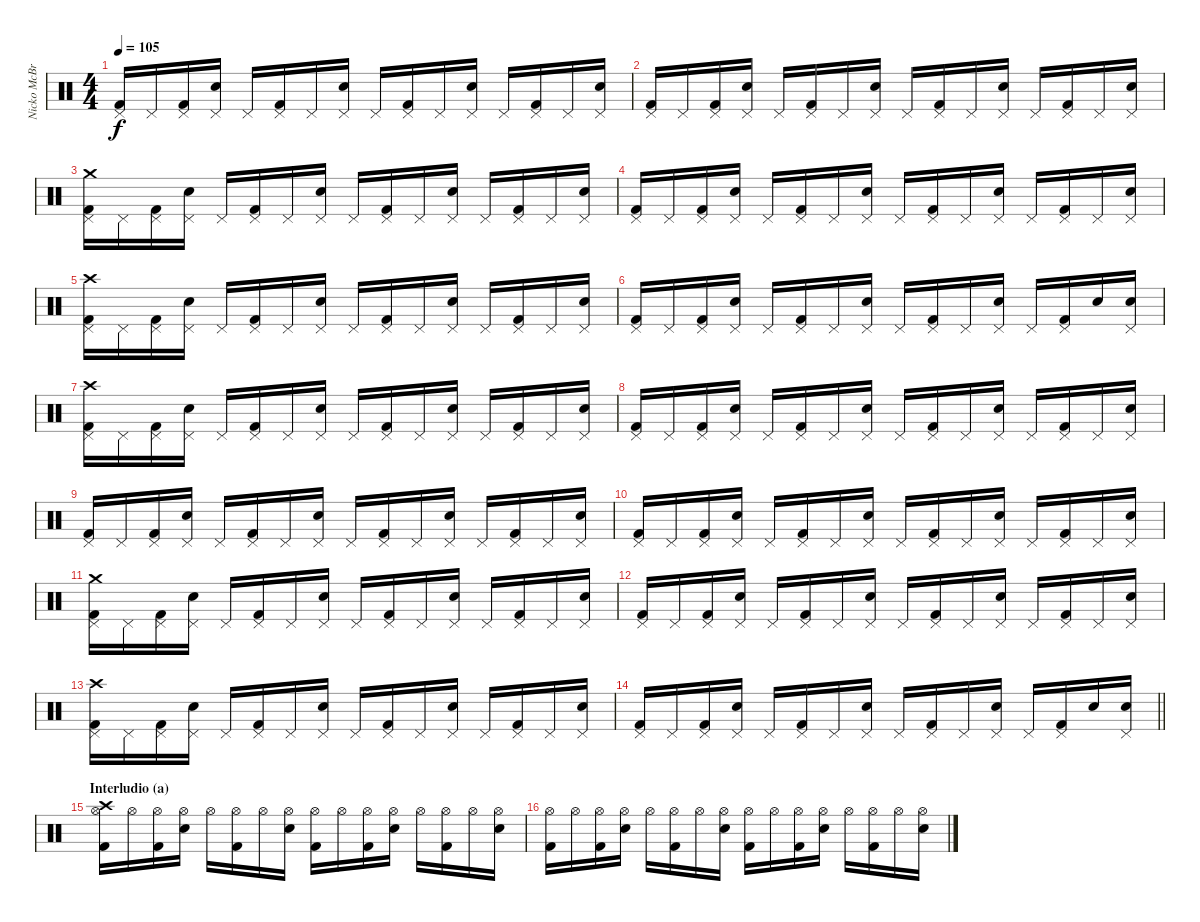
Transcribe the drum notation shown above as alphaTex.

\track ("Nicko McBrain" "Nicko McBr") {instrument percussion}
\staff {score}
\articulation defaults
\ts (4 4)
\tempo 105
\clef neutral
\ks c
("Kick (hit) 2" "Pedal Hi-Hat (hit)").16{dy f} "Pedal Hi-Hat (hit)".16 ("Kick (hit) 2" "Pedal Hi-Hat (hit)").16 ("Snare (hit) 2" "Pedal Hi-Hat (hit)").16 "Pedal Hi-Hat (hit)".16 ("Kick (hit) 2" "Pedal Hi-Hat (hit)").16 "Pedal Hi-Hat (hit)".16 ("Snare (hit) 2" "Pedal Hi-Hat (hit)").16 "Pedal Hi-Hat (hit)".16 ("Kick (hit) 2" "Pedal Hi-Hat (hit)").16 "Pedal Hi-Hat (hit)".16 ("Snare (hit) 2" "Pedal Hi-Hat (hit)").16 "Pedal Hi-Hat (hit)".16 ("Kick (hit) 2" "Pedal Hi-Hat (hit)").16 "Pedal Hi-Hat (hit)".16 ("Snare (hit) 2" "Pedal Hi-Hat (hit)").16 |
("Kick (hit) 2" "Pedal Hi-Hat (hit)").16 "Pedal Hi-Hat (hit)".16 ("Kick (hit) 2" "Pedal Hi-Hat (hit)").16 ("Snare (hit) 2" "Pedal Hi-Hat (hit)").16 "Pedal Hi-Hat (hit)".16 ("Kick (hit) 2" "Pedal Hi-Hat (hit)").16 "Pedal Hi-Hat (hit)".16 ("Snare (hit) 2" "Pedal Hi-Hat (hit)").16 "Pedal Hi-Hat (hit)".16 ("Kick (hit) 2" "Pedal Hi-Hat (hit)").16 "Pedal Hi-Hat (hit)".16 ("Snare (hit) 2" "Pedal Hi-Hat (hit)").16 "Pedal Hi-Hat (hit)".16 ("Kick (hit) 2" "Pedal Hi-Hat (hit)").16 "Pedal Hi-Hat (hit)".16 ("Snare (hit) 2" "Pedal Hi-Hat (hit)").16 |
("Kick (hit) 2" "Pedal Hi-Hat (hit)" "Crash medium (hit)").16 "Pedal Hi-Hat (hit)".16 ("Kick (hit) 2" "Pedal Hi-Hat (hit)").16 ("Snare (hit) 2" "Pedal Hi-Hat (hit)").16 "Pedal Hi-Hat (hit)".16 ("Kick (hit) 2" "Pedal Hi-Hat (hit)").16 "Pedal Hi-Hat (hit)".16 ("Snare (hit) 2" "Pedal Hi-Hat (hit)").16 "Pedal Hi-Hat (hit)".16 ("Kick (hit) 2" "Pedal Hi-Hat (hit)").16 "Pedal Hi-Hat (hit)".16 ("Snare (hit) 2" "Pedal Hi-Hat (hit)").16 "Pedal Hi-Hat (hit)".16 ("Kick (hit) 2" "Pedal Hi-Hat (hit)").16 "Pedal Hi-Hat (hit)".16 ("Snare (hit) 2" "Pedal Hi-Hat (hit)").16 |
("Kick (hit) 2" "Pedal Hi-Hat (hit)").16 "Pedal Hi-Hat (hit)".16 ("Kick (hit) 2" "Pedal Hi-Hat (hit)").16 ("Snare (hit) 2" "Pedal Hi-Hat (hit)").16 "Pedal Hi-Hat (hit)".16 ("Kick (hit) 2" "Pedal Hi-Hat (hit)").16 "Pedal Hi-Hat (hit)".16 ("Snare (hit) 2" "Pedal Hi-Hat (hit)").16 "Pedal Hi-Hat (hit)".16 ("Kick (hit) 2" "Pedal Hi-Hat (hit)").16 "Pedal Hi-Hat (hit)".16 ("Snare (hit) 2" "Pedal Hi-Hat (hit)").16 "Pedal Hi-Hat (hit)".16 ("Kick (hit) 2" "Pedal Hi-Hat (hit)").16 "Pedal Hi-Hat (hit)".16 ("Snare (hit) 2" "Pedal Hi-Hat (hit)").16 |
("Kick (hit) 2" "Pedal Hi-Hat (hit)" "Crash high (hit)").16 "Pedal Hi-Hat (hit)".16 ("Kick (hit) 2" "Pedal Hi-Hat (hit)").16 ("Snare (hit) 2" "Pedal Hi-Hat (hit)").16 "Pedal Hi-Hat (hit)".16 ("Kick (hit) 2" "Pedal Hi-Hat (hit)").16 "Pedal Hi-Hat (hit)".16 ("Snare (hit) 2" "Pedal Hi-Hat (hit)").16 "Pedal Hi-Hat (hit)".16 ("Kick (hit) 2" "Pedal Hi-Hat (hit)").16 "Pedal Hi-Hat (hit)".16 ("Snare (hit) 2" "Pedal Hi-Hat (hit)").16 "Pedal Hi-Hat (hit)".16 ("Kick (hit) 2" "Pedal Hi-Hat (hit)").16 "Pedal Hi-Hat (hit)".16 ("Snare (hit) 2" "Pedal Hi-Hat (hit)").16 |
("Kick (hit) 2" "Pedal Hi-Hat (hit)").16 "Pedal Hi-Hat (hit)".16 ("Kick (hit) 2" "Pedal Hi-Hat (hit)").16 ("Snare (hit) 2" "Pedal Hi-Hat (hit)").16 "Pedal Hi-Hat (hit)".16 ("Kick (hit) 2" "Pedal Hi-Hat (hit)").16 "Pedal Hi-Hat (hit)".16 ("Snare (hit) 2" "Pedal Hi-Hat (hit)").16 "Pedal Hi-Hat (hit)".16 ("Kick (hit) 2" "Pedal Hi-Hat (hit)").16 "Pedal Hi-Hat (hit)".16 ("Snare (hit) 2" "Pedal Hi-Hat (hit)").16 "Pedal Hi-Hat (hit)".16 ("Kick (hit) 2" "Pedal Hi-Hat (hit)").16 "Snare (hit) 2".16 ("Snare (hit) 2" "Pedal Hi-Hat (hit)").16 |
("Kick (hit) 2" "Pedal Hi-Hat (hit)" "Crash high (hit)").16 "Pedal Hi-Hat (hit)".16 ("Kick (hit) 2" "Pedal Hi-Hat (hit)").16 ("Snare (hit) 2" "Pedal Hi-Hat (hit)").16 "Pedal Hi-Hat (hit)".16 ("Kick (hit) 2" "Pedal Hi-Hat (hit)").16 "Pedal Hi-Hat (hit)".16 ("Snare (hit) 2" "Pedal Hi-Hat (hit)").16 "Pedal Hi-Hat (hit)".16 ("Kick (hit) 2" "Pedal Hi-Hat (hit)").16 "Pedal Hi-Hat (hit)".16 ("Snare (hit) 2" "Pedal Hi-Hat (hit)").16 "Pedal Hi-Hat (hit)".16 ("Kick (hit) 2" "Pedal Hi-Hat (hit)").16 "Pedal Hi-Hat (hit)".16 ("Snare (hit) 2" "Pedal Hi-Hat (hit)").16 |
("Kick (hit) 2" "Pedal Hi-Hat (hit)").16 "Pedal Hi-Hat (hit)".16 ("Kick (hit) 2" "Pedal Hi-Hat (hit)").16 ("Snare (hit) 2" "Pedal Hi-Hat (hit)").16 "Pedal Hi-Hat (hit)".16 ("Kick (hit) 2" "Pedal Hi-Hat (hit)").16 "Pedal Hi-Hat (hit)".16 ("Snare (hit) 2" "Pedal Hi-Hat (hit)").16 "Pedal Hi-Hat (hit)".16 ("Kick (hit) 2" "Pedal Hi-Hat (hit)").16 "Pedal Hi-Hat (hit)".16 ("Snare (hit) 2" "Pedal Hi-Hat (hit)").16 "Pedal Hi-Hat (hit)".16 ("Kick (hit) 2" "Pedal Hi-Hat (hit)").16 "Pedal Hi-Hat (hit)".16 ("Snare (hit) 2" "Pedal Hi-Hat (hit)").16 |
("Kick (hit) 2" "Pedal Hi-Hat (hit)").16 "Pedal Hi-Hat (hit)".16 ("Kick (hit) 2" "Pedal Hi-Hat (hit)").16 ("Snare (hit) 2" "Pedal Hi-Hat (hit)").16 "Pedal Hi-Hat (hit)".16 ("Kick (hit) 2" "Pedal Hi-Hat (hit)").16 "Pedal Hi-Hat (hit)".16 ("Snare (hit) 2" "Pedal Hi-Hat (hit)").16 "Pedal Hi-Hat (hit)".16 ("Kick (hit) 2" "Pedal Hi-Hat (hit)").16 "Pedal Hi-Hat (hit)".16 ("Snare (hit) 2" "Pedal Hi-Hat (hit)").16 "Pedal Hi-Hat (hit)".16 ("Kick (hit) 2" "Pedal Hi-Hat (hit)").16 "Pedal Hi-Hat (hit)".16 ("Snare (hit) 2" "Pedal Hi-Hat (hit)").16 |
("Kick (hit) 2" "Pedal Hi-Hat (hit)").16 "Pedal Hi-Hat (hit)".16 ("Kick (hit) 2" "Pedal Hi-Hat (hit)").16 ("Snare (hit) 2" "Pedal Hi-Hat (hit)").16 "Pedal Hi-Hat (hit)".16 ("Kick (hit) 2" "Pedal Hi-Hat (hit)").16 "Pedal Hi-Hat (hit)".16 ("Snare (hit) 2" "Pedal Hi-Hat (hit)").16 "Pedal Hi-Hat (hit)".16 ("Kick (hit) 2" "Pedal Hi-Hat (hit)").16 "Pedal Hi-Hat (hit)".16 ("Snare (hit) 2" "Pedal Hi-Hat (hit)").16 "Pedal Hi-Hat (hit)".16 ("Kick (hit) 2" "Pedal Hi-Hat (hit)").16 "Pedal Hi-Hat (hit)".16 ("Snare (hit) 2" "Pedal Hi-Hat (hit)").16 |
("Kick (hit) 2" "Pedal Hi-Hat (hit)" "Crash medium (hit)").16 "Pedal Hi-Hat (hit)".16 ("Kick (hit) 2" "Pedal Hi-Hat (hit)").16 ("Snare (hit) 2" "Pedal Hi-Hat (hit)").16 "Pedal Hi-Hat (hit)".16 ("Kick (hit) 2" "Pedal Hi-Hat (hit)").16 "Pedal Hi-Hat (hit)".16 ("Snare (hit) 2" "Pedal Hi-Hat (hit)").16 "Pedal Hi-Hat (hit)".16 ("Kick (hit) 2" "Pedal Hi-Hat (hit)").16 "Pedal Hi-Hat (hit)".16 ("Snare (hit) 2" "Pedal Hi-Hat (hit)").16 "Pedal Hi-Hat (hit)".16 ("Kick (hit) 2" "Pedal Hi-Hat (hit)").16 "Pedal Hi-Hat (hit)".16 ("Snare (hit) 2" "Pedal Hi-Hat (hit)").16 |
("Kick (hit) 2" "Pedal Hi-Hat (hit)").16 "Pedal Hi-Hat (hit)".16 ("Kick (hit) 2" "Pedal Hi-Hat (hit)").16 ("Snare (hit) 2" "Pedal Hi-Hat (hit)").16 "Pedal Hi-Hat (hit)".16 ("Kick (hit) 2" "Pedal Hi-Hat (hit)").16 "Pedal Hi-Hat (hit)".16 ("Snare (hit) 2" "Pedal Hi-Hat (hit)").16 "Pedal Hi-Hat (hit)".16 ("Kick (hit) 2" "Pedal Hi-Hat (hit)").16 "Pedal Hi-Hat (hit)".16 ("Snare (hit) 2" "Pedal Hi-Hat (hit)").16 "Pedal Hi-Hat (hit)".16 ("Kick (hit) 2" "Pedal Hi-Hat (hit)").16 "Pedal Hi-Hat (hit)".16 ("Snare (hit) 2" "Pedal Hi-Hat (hit)").16 |
("Kick (hit) 2" "Pedal Hi-Hat (hit)" "Crash high (hit)").16 "Pedal Hi-Hat (hit)".16 ("Kick (hit) 2" "Pedal Hi-Hat (hit)").16 ("Snare (hit) 2" "Pedal Hi-Hat (hit)").16 "Pedal Hi-Hat (hit)".16 ("Kick (hit) 2" "Pedal Hi-Hat (hit)").16 "Pedal Hi-Hat (hit)".16 ("Snare (hit) 2" "Pedal Hi-Hat (hit)").16 "Pedal Hi-Hat (hit)".16 ("Kick (hit) 2" "Pedal Hi-Hat (hit)").16 "Pedal Hi-Hat (hit)".16 ("Snare (hit) 2" "Pedal Hi-Hat (hit)").16 "Pedal Hi-Hat (hit)".16 ("Kick (hit) 2" "Pedal Hi-Hat (hit)").16 "Pedal Hi-Hat (hit)".16 ("Snare (hit) 2" "Pedal Hi-Hat (hit)").16 |
\barLineRight lightlight
("Kick (hit) 2" "Pedal Hi-Hat (hit)").16 "Pedal Hi-Hat (hit)".16 ("Kick (hit) 2" "Pedal Hi-Hat (hit)").16 ("Snare (hit) 2" "Pedal Hi-Hat (hit)").16 "Pedal Hi-Hat (hit)".16 ("Kick (hit) 2" "Pedal Hi-Hat (hit)").16 "Pedal Hi-Hat (hit)".16 ("Snare (hit) 2" "Pedal Hi-Hat (hit)").16 "Pedal Hi-Hat (hit)".16 ("Kick (hit) 2" "Pedal Hi-Hat (hit)").16 "Pedal Hi-Hat (hit)".16 ("Snare (hit) 2" "Pedal Hi-Hat (hit)").16 "Pedal Hi-Hat (hit)".16 ("Kick (hit) 2" "Pedal Hi-Hat (hit)").16 "Snare (hit) 2".16 ("Snare (hit) 2" "Pedal Hi-Hat (hit)").16 |
\section ("" "Interludio (a)")
("Kick (hit) 2" "Hi-Hat (open)" "Crash high (hit)").16 "Hi-Hat (open)".16 ("Kick (hit) 2" "Hi-Hat (open)").16 ("Snare (hit) 2" "Hi-Hat (open)").16 "Hi-Hat (open)".16 ("Kick (hit) 2" "Hi-Hat (open)").16 "Hi-Hat (open)".16 ("Snare (hit) 2" "Hi-Hat (open)").16 ("Kick (hit) 2" "Hi-Hat (open)").16 "Hi-Hat (open)".16 ("Kick (hit) 2" "Hi-Hat (open)").16 ("Snare (hit) 2" "Hi-Hat (open)").16 "Hi-Hat (open)".16 ("Kick (hit) 2" "Hi-Hat (open)").16 "Hi-Hat (open)".16 ("Snare (hit) 2" "Hi-Hat (open)").16 |
("Kick (hit) 2" "Hi-Hat (open)").16 "Hi-Hat (open)".16 ("Kick (hit) 2" "Hi-Hat (open)").16 ("Snare (hit) 2" "Hi-Hat (open)").16 "Hi-Hat (open)".16 ("Kick (hit) 2" "Hi-Hat (open)").16 "Hi-Hat (open)".16 ("Snare (hit) 2" "Hi-Hat (open)").16 ("Kick (hit) 2" "Hi-Hat (open)").16 "Hi-Hat (open)".16 ("Kick (hit) 2" "Hi-Hat (open)").16 ("Snare (hit) 2" "Hi-Hat (open)").16 "Hi-Hat (open)".16 ("Kick (hit) 2" "Hi-Hat (open)").16 "Hi-Hat (open)".16 ("Snare (hit) 2" "Hi-Hat (open)").16
